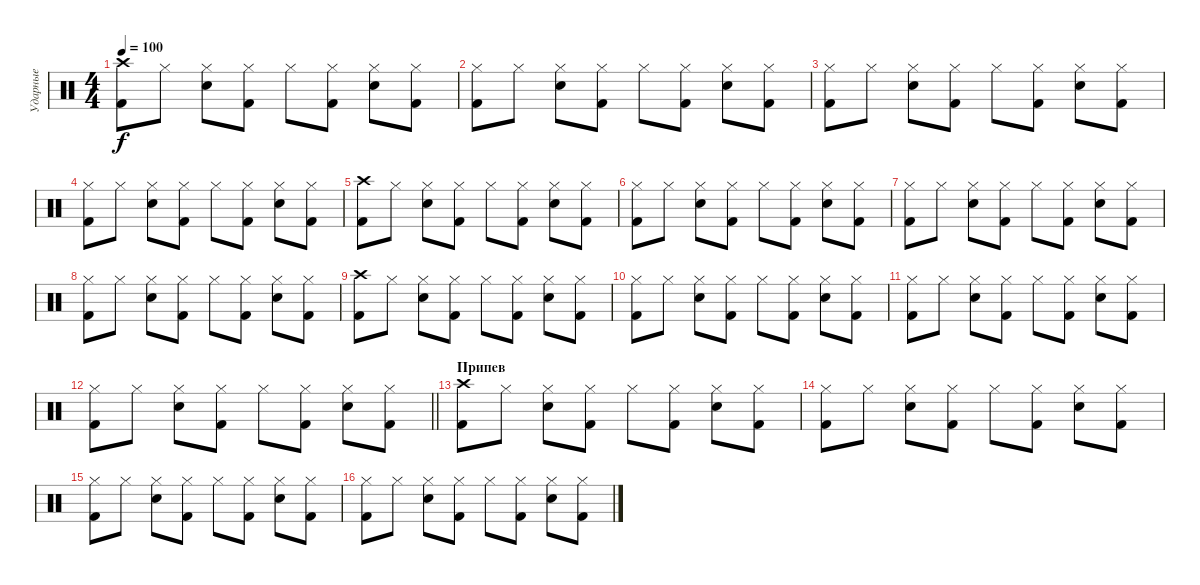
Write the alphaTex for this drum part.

\track ("Ударные" "Ударные") {instrument percussion}
\staff {score}
\articulation defaults
\ts (4 4)
\tempo 100
\clef neutral
\ks c
("Crash high (hit)" "Kick (hit) 2").8{dy f} "Hi-Hat (closed)".8 ("Hi-Hat (closed)" "Snare (hit) 2").8 ("Hi-Hat (closed)" "Kick (hit) 2").8 "Hi-Hat (closed)".8 ("Hi-Hat (closed)" "Kick (hit) 2").8 ("Hi-Hat (closed)" "Snare (hit) 2").8 ("Hi-Hat (closed)" "Kick (hit) 2").8 |
("Hi-Hat (closed)" "Kick (hit) 2").8 "Hi-Hat (closed)".8 ("Hi-Hat (closed)" "Snare (hit) 2").8 ("Hi-Hat (closed)" "Kick (hit) 2").8 "Hi-Hat (closed)".8 ("Hi-Hat (closed)" "Kick (hit) 2").8 ("Hi-Hat (closed)" "Snare (hit) 2").8 ("Hi-Hat (closed)" "Kick (hit) 2").8 |
("Hi-Hat (closed)" "Kick (hit) 2").8 "Hi-Hat (closed)".8 ("Hi-Hat (closed)" "Snare (hit) 2").8 ("Hi-Hat (closed)" "Kick (hit) 2").8 "Hi-Hat (closed)".8 ("Hi-Hat (closed)" "Kick (hit) 2").8 ("Hi-Hat (closed)" "Snare (hit) 2").8 ("Hi-Hat (closed)" "Kick (hit) 2").8 |
("Hi-Hat (closed)" "Kick (hit) 2").8 "Hi-Hat (closed)".8 ("Hi-Hat (closed)" "Snare (hit) 2").8 ("Hi-Hat (closed)" "Kick (hit) 2").8 "Hi-Hat (closed)".8 ("Hi-Hat (closed)" "Kick (hit) 2").8 ("Hi-Hat (closed)" "Snare (hit) 2").8 ("Hi-Hat (closed)" "Kick (hit) 2").8 |
("Crash high (hit)" "Kick (hit) 2").8 "Hi-Hat (closed)".8 ("Hi-Hat (closed)" "Snare (hit) 2").8 ("Hi-Hat (closed)" "Kick (hit) 2").8 "Hi-Hat (closed)".8 ("Hi-Hat (closed)" "Kick (hit) 2").8 ("Hi-Hat (closed)" "Snare (hit) 2").8 ("Hi-Hat (closed)" "Kick (hit) 2").8 |
("Hi-Hat (closed)" "Kick (hit) 2").8 "Hi-Hat (closed)".8 ("Hi-Hat (closed)" "Snare (hit) 2").8 ("Hi-Hat (closed)" "Kick (hit) 2").8 "Hi-Hat (closed)".8 ("Hi-Hat (closed)" "Kick (hit) 2").8 ("Hi-Hat (closed)" "Snare (hit) 2").8 ("Hi-Hat (closed)" "Kick (hit) 2").8 |
("Hi-Hat (closed)" "Kick (hit) 2").8 "Hi-Hat (closed)".8 ("Hi-Hat (closed)" "Snare (hit) 2").8 ("Hi-Hat (closed)" "Kick (hit) 2").8 "Hi-Hat (closed)".8 ("Hi-Hat (closed)" "Kick (hit) 2").8 ("Hi-Hat (closed)" "Snare (hit) 2").8 ("Hi-Hat (closed)" "Kick (hit) 2").8 |
("Hi-Hat (closed)" "Kick (hit) 2").8 "Hi-Hat (closed)".8 ("Hi-Hat (closed)" "Snare (hit) 2").8 ("Hi-Hat (closed)" "Kick (hit) 2").8 "Hi-Hat (closed)".8 ("Hi-Hat (closed)" "Kick (hit) 2").8 ("Hi-Hat (closed)" "Snare (hit) 2").8 ("Hi-Hat (closed)" "Kick (hit) 2").8 |
("Crash high (hit)" "Kick (hit) 2").8 "Hi-Hat (closed)".8 ("Hi-Hat (closed)" "Snare (hit) 2").8 ("Hi-Hat (closed)" "Kick (hit) 2").8 "Hi-Hat (closed)".8 ("Hi-Hat (closed)" "Kick (hit) 2").8 ("Hi-Hat (closed)" "Snare (hit) 2").8 ("Hi-Hat (closed)" "Kick (hit) 2").8 |
("Hi-Hat (closed)" "Kick (hit) 2").8 "Hi-Hat (closed)".8 ("Hi-Hat (closed)" "Snare (hit) 2").8 ("Hi-Hat (closed)" "Kick (hit) 2").8 "Hi-Hat (closed)".8 ("Hi-Hat (closed)" "Kick (hit) 2").8 ("Hi-Hat (closed)" "Snare (hit) 2").8 ("Hi-Hat (closed)" "Kick (hit) 2").8 |
("Hi-Hat (closed)" "Kick (hit) 2").8 "Hi-Hat (closed)".8 ("Hi-Hat (closed)" "Snare (hit) 2").8 ("Hi-Hat (closed)" "Kick (hit) 2").8 "Hi-Hat (closed)".8 ("Hi-Hat (closed)" "Kick (hit) 2").8 ("Hi-Hat (closed)" "Snare (hit) 2").8 ("Hi-Hat (closed)" "Kick (hit) 2").8 |
\barLineRight lightlight
("Hi-Hat (closed)" "Kick (hit) 2").8 "Hi-Hat (closed)".8 ("Hi-Hat (closed)" "Snare (hit) 2").8 ("Hi-Hat (closed)" "Kick (hit) 2").8 "Hi-Hat (closed)".8 ("Hi-Hat (closed)" "Kick (hit) 2").8 ("Hi-Hat (closed)" "Snare (hit) 2").8 ("Hi-Hat (closed)" "Kick (hit) 2").8 |
\section ("" "Припев")
("Crash high (hit)" "Kick (hit) 2").8 "Hi-Hat (closed)".8 ("Hi-Hat (closed)" "Snare (hit) 2").8 ("Hi-Hat (closed)" "Kick (hit) 2").8 "Hi-Hat (closed)".8 ("Hi-Hat (closed)" "Kick (hit) 2").8 ("Hi-Hat (closed)" "Snare (hit) 2").8 ("Hi-Hat (closed)" "Kick (hit) 2").8 |
("Hi-Hat (closed)" "Kick (hit) 2").8 "Hi-Hat (closed)".8 ("Hi-Hat (closed)" "Snare (hit) 2").8 ("Hi-Hat (closed)" "Kick (hit) 2").8 "Hi-Hat (closed)".8 ("Hi-Hat (closed)" "Kick (hit) 2").8 ("Hi-Hat (closed)" "Snare (hit) 2").8 ("Hi-Hat (closed)" "Kick (hit) 2").8 |
("Hi-Hat (closed)" "Kick (hit) 2").8 "Hi-Hat (closed)".8 ("Hi-Hat (closed)" "Snare (hit) 2").8 ("Hi-Hat (closed)" "Kick (hit) 2").8 "Hi-Hat (closed)".8 ("Hi-Hat (closed)" "Kick (hit) 2").8 ("Hi-Hat (closed)" "Snare (hit) 2").8 ("Hi-Hat (closed)" "Kick (hit) 2").8 |
("Hi-Hat (closed)" "Kick (hit) 2").8 "Hi-Hat (closed)".8 ("Hi-Hat (closed)" "Snare (hit) 2").8 ("Hi-Hat (closed)" "Kick (hit) 2").8 "Hi-Hat (closed)".8 ("Hi-Hat (closed)" "Kick (hit) 2").8 ("Hi-Hat (closed)" "Snare (hit) 2").8 ("Hi-Hat (closed)" "Kick (hit) 2").8
